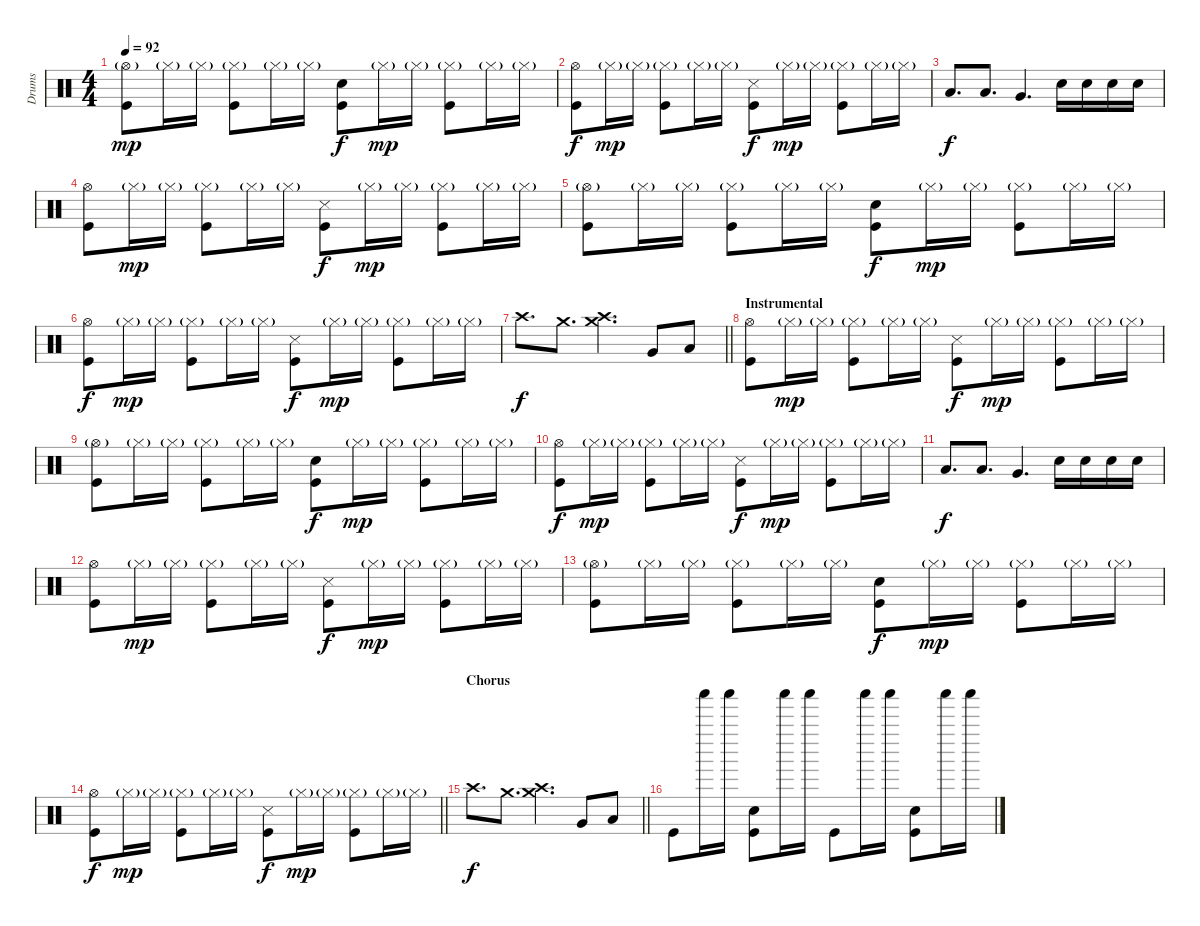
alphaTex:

\track ("Drums" "Drums") {instrument percussion}
\staff {score}
\articulation defaults
\ts (4 4)
\tempo 92
\clef neutral
\ks c
("Hi-Hat (open)"{g} "Kick (hit)").8{dy mp} "Hi-Hat (closed)"{g}.16 "Hi-Hat (closed)"{g}.16 ("Hi-Hat (closed)"{g} "Kick (hit)").8 "Hi-Hat (closed)"{g}.16 "Hi-Hat (closed)"{g}.16 ("Snare (hit) 2" "Kick (hit)").8{dy f} "Hi-Hat (closed)"{g}.16{dy mp} "Hi-Hat (closed)"{g}.16 ("Hi-Hat (closed)"{g} "Kick (hit)").8 "Hi-Hat (closed)"{g}.16 "Hi-Hat (closed)"{g}.16 |
("Hi-Hat (open)" "Kick (hit)").8{dy f} "Hi-Hat (closed)"{g}.16{dy mp} "Hi-Hat (closed)"{g}.16 ("Hi-Hat (closed)"{g} "Kick (hit)").8 "Hi-Hat (closed)"{g}.16 "Hi-Hat (closed)"{g}.16 ("Metronome (hit)" "Kick (hit)").8{dy f} "Hi-Hat (closed)"{g}.16{dy mp} "Hi-Hat (closed)"{g}.16 ("Hi-Hat (closed)"{g} "Kick (hit)").8 "Hi-Hat (closed)"{g}.16 "Hi-Hat (closed)"{g}.16 |
"Low Floor Tom (hit)".8{d dy f} "Low Tom (hit)".8{d} "Very Low Tom (hit)".4{d} "Snare (hit) 2".16 "Snare (hit) 2".16 "Snare (hit) 2".16 "Snare (hit) 2".16 |
("Hi-Hat (open)" "Kick (hit)").8 "Hi-Hat (closed)"{g}.16{dy mp} "Hi-Hat (closed)"{g}.16 ("Hi-Hat (closed)"{g} "Kick (hit)").8 "Hi-Hat (closed)"{g}.16 "Hi-Hat (closed)"{g}.16 ("Metronome (hit)" "Kick (hit)").8{dy f} "Hi-Hat (closed)"{g}.16{dy mp} "Hi-Hat (closed)"{g}.16 ("Hi-Hat (closed)"{g} "Kick (hit)").8 "Hi-Hat (closed)"{g}.16 "Hi-Hat (closed)"{g}.16 |
("Hi-Hat (open)"{g} "Kick (hit)").8 "Hi-Hat (closed)"{g}.16 "Hi-Hat (closed)"{g}.16 ("Hi-Hat (closed)"{g} "Kick (hit)").8 "Hi-Hat (closed)"{g}.16 "Hi-Hat (closed)"{g}.16 ("Snare (hit) 2" "Kick (hit)").8{dy f} "Hi-Hat (closed)"{g}.16{dy mp} "Hi-Hat (closed)"{g}.16 ("Hi-Hat (closed)"{g} "Kick (hit)").8 "Hi-Hat (closed)"{g}.16 "Hi-Hat (closed)"{g}.16 |
("Hi-Hat (open)" "Kick (hit)").8{dy f} "Hi-Hat (closed)"{g}.16{dy mp} "Hi-Hat (closed)"{g}.16 ("Hi-Hat (closed)"{g} "Kick (hit)").8 "Hi-Hat (closed)"{g}.16 "Hi-Hat (closed)"{g}.16 ("Metronome (hit)" "Kick (hit)").8{dy f} "Hi-Hat (closed)"{g}.16{dy mp} "Hi-Hat (closed)"{g}.16 ("Hi-Hat (closed)"{g} "Kick (hit)").8 "Hi-Hat (closed)"{g}.16 "Hi-Hat (closed)"{g}.16 |
\barLineRight lightlight "Crash high (hit)".8{d dy f} "Crash medium (hit)".8{d}
("Crash medium (hit)" "Crash high (hit)").4{d} "Very Low Tom (hit)".8 "Low Floor Tom (hit)".8 |
\section ("" "Instrumental")
("Hi-Hat (open)" "Kick (hit)").8 "Hi-Hat (closed)"{g}.16{dy mp} "Hi-Hat (closed)"{g}.16 ("Hi-Hat (closed)"{g} "Kick (hit)").8 "Hi-Hat (closed)"{g}.16 "Hi-Hat (closed)"{g}.16 ("Metronome (hit)" "Kick (hit)").8{dy f} "Hi-Hat (closed)"{g}.16{dy mp} "Hi-Hat (closed)"{g}.16 ("Hi-Hat (closed)"{g} "Kick (hit)").8 "Hi-Hat (closed)"{g}.16 "Hi-Hat (closed)"{g}.16 |
("Hi-Hat (open)"{g} "Kick (hit)").8 "Hi-Hat (closed)"{g}.16 "Hi-Hat (closed)"{g}.16 ("Hi-Hat (closed)"{g} "Kick (hit)").8 "Hi-Hat (closed)"{g}.16 "Hi-Hat (closed)"{g}.16 ("Snare (hit) 2" "Kick (hit)").8{dy f} "Hi-Hat (closed)"{g}.16{dy mp} "Hi-Hat (closed)"{g}.16 ("Hi-Hat (closed)"{g} "Kick (hit)").8 "Hi-Hat (closed)"{g}.16 "Hi-Hat (closed)"{g}.16 |
("Hi-Hat (open)" "Kick (hit)").8{dy f} "Hi-Hat (closed)"{g}.16{dy mp} "Hi-Hat (closed)"{g}.16 ("Hi-Hat (closed)"{g} "Kick (hit)").8 "Hi-Hat (closed)"{g}.16 "Hi-Hat (closed)"{g}.16 ("Metronome (hit)" "Kick (hit)").8{dy f} "Hi-Hat (closed)"{g}.16{dy mp} "Hi-Hat (closed)"{g}.16 ("Hi-Hat (closed)"{g} "Kick (hit)").8 "Hi-Hat (closed)"{g}.16 "Hi-Hat (closed)"{g}.16 |
"Low Floor Tom (hit)".8{d dy f} "Low Tom (hit)".8{d} "Very Low Tom (hit)".4{d} "Snare (hit) 2".16 "Snare (hit) 2".16 "Snare (hit) 2".16 "Snare (hit) 2".16 |
("Hi-Hat (open)" "Kick (hit)").8 "Hi-Hat (closed)"{g}.16{dy mp} "Hi-Hat (closed)"{g}.16 ("Hi-Hat (closed)"{g} "Kick (hit)").8 "Hi-Hat (closed)"{g}.16 "Hi-Hat (closed)"{g}.16 ("Metronome (hit)" "Kick (hit)").8{dy f} "Hi-Hat (closed)"{g}.16{dy mp} "Hi-Hat (closed)"{g}.16 ("Hi-Hat (closed)"{g} "Kick (hit)").8 "Hi-Hat (closed)"{g}.16 "Hi-Hat (closed)"{g}.16 |
("Hi-Hat (open)"{g} "Kick (hit)").8 "Hi-Hat (closed)"{g}.16 "Hi-Hat (closed)"{g}.16 ("Hi-Hat (closed)"{g} "Kick (hit)").8 "Hi-Hat (closed)"{g}.16 "Hi-Hat (closed)"{g}.16 ("Snare (hit) 2" "Kick (hit)").8{dy f} "Hi-Hat (closed)"{g}.16{dy mp} "Hi-Hat (closed)"{g}.16 ("Hi-Hat (closed)"{g} "Kick (hit)").8 "Hi-Hat (closed)"{g}.16 "Hi-Hat (closed)"{g}.16 |
\barLineRight lightlight
("Hi-Hat (open)" "Kick (hit)").8{dy f} "Hi-Hat (closed)"{g}.16{dy mp} "Hi-Hat (closed)"{g}.16 ("Hi-Hat (closed)"{g} "Kick (hit)").8 "Hi-Hat (closed)"{g}.16 "Hi-Hat (closed)"{g}.16 ("Metronome (hit)" "Kick (hit)").8{dy f} "Hi-Hat (closed)"{g}.16{dy mp} "Hi-Hat (closed)"{g}.16 ("Hi-Hat (closed)"{g} "Kick (hit)").8 "Hi-Hat (closed)"{g}.16 "Hi-Hat (closed)"{g}.16 |
\section ("" "Chorus")
\barLineRight lightlight "Crash high (hit)".8{d dy f} "Crash medium (hit)".8{d}
("Crash medium (hit)" "Crash high (hit)").4{d} "Very Low Tom (hit)".8 "Low Floor Tom (hit)".8 |
"Kick (hit)".8 "Shaker (hit)".16 "Shaker (hit)".16 ("Snare (hit) 2" "Kick (hit)").8 "Shaker (hit)".16 "Shaker (hit)".16 "Kick (hit)".8 "Shaker (hit)".16 "Shaker (hit)".16 ("Snare (hit) 2" "Kick (hit)").8 "Shaker (hit)".16 "Shaker (hit)".16
